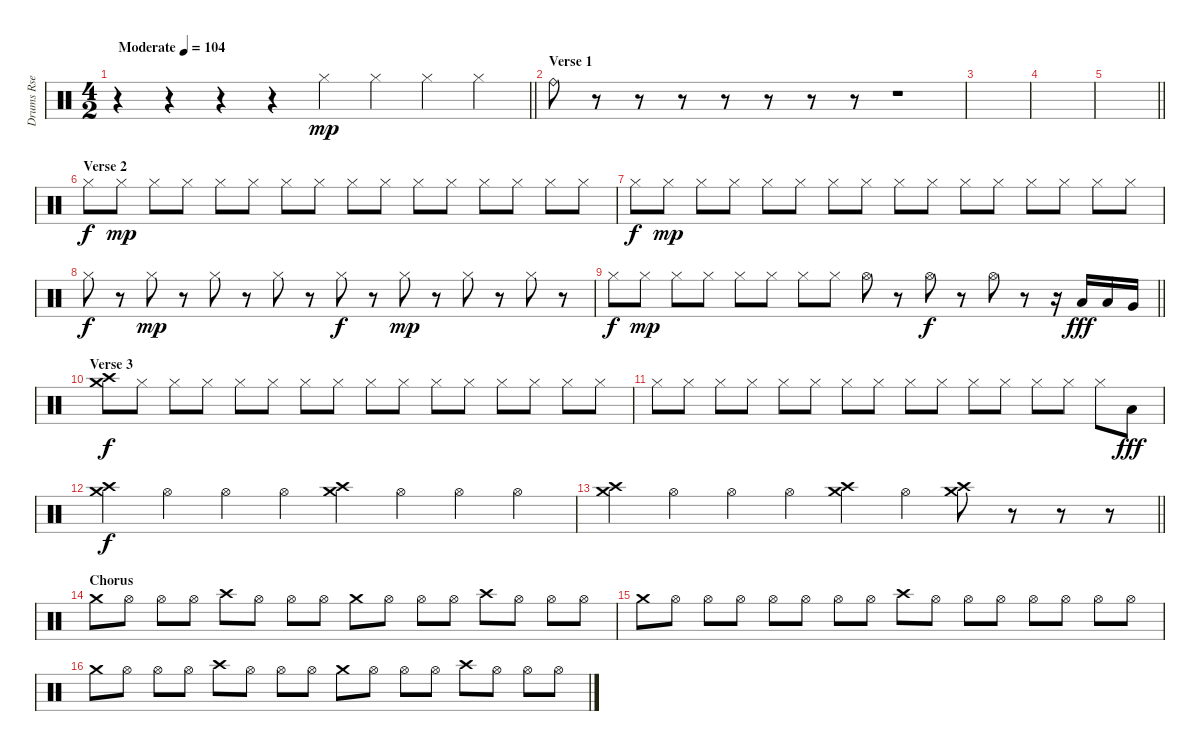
\track ("Drums Rse" "Drums Rse") {instrument percussion}
\staff {score}
\articulation defaults
\ts (4 2)
\tempo (104 "Moderate")
\clef neutral
\barLineRight lightlight
\ks c
r.4{dy mp} r.4 r.4 r.4 "Hi-Hat (closed)".4 "Hi-Hat (closed)".4 "Hi-Hat (closed)".4 "Hi-Hat (closed)".4 |
\section ("" "Verse 1")
"Ride (bell)".8 r.8 r.8 r.8 r.8 r.8 r.8 r.8 r.1 |
|
|
\barLineRight lightlight
|
\section ("" "Verse 2")
"Hi-Hat (closed)".8{dy f} "Hi-Hat (closed)".8{dy mp} "Hi-Hat (closed)".8 "Hi-Hat (closed)".8 "Hi-Hat (closed)".8 "Hi-Hat (closed)".8 "Hi-Hat (closed)".8 "Hi-Hat (closed)".8 "Hi-Hat (closed)".8 "Hi-Hat (closed)".8 "Hi-Hat (closed)".8 "Hi-Hat (closed)".8 "Hi-Hat (closed)".8 "Hi-Hat (closed)".8 "Hi-Hat (closed)".8 "Hi-Hat (closed)".8 |
"Hi-Hat (closed)".8{dy f} "Hi-Hat (closed)".8{dy mp} "Hi-Hat (closed)".8 "Hi-Hat (closed)".8 "Hi-Hat (closed)".8 "Hi-Hat (closed)".8 "Hi-Hat (closed)".8 "Hi-Hat (closed)".8 "Hi-Hat (closed)".8 "Hi-Hat (closed)".8 "Hi-Hat (closed)".8 "Hi-Hat (closed)".8 "Hi-Hat (closed)".8 "Hi-Hat (closed)".8 "Hi-Hat (closed)".8 "Hi-Hat (closed)".8 |
"Hi-Hat (closed)".8{dy f} r.8 "Hi-Hat (closed)".8{dy mp} r.8 "Hi-Hat (closed)".8 r.8 "Hi-Hat (closed)".8 r.8 "Hi-Hat (closed)".8{dy f} r.8 "Hi-Hat (closed)".8{dy mp} r.8 "Hi-Hat (closed)".8 r.8 "Hi-Hat (closed)".8 r.8 |
\barLineRight lightlight "Hi-Hat (closed)".8{dy f} "Hi-Hat (closed)".8{dy mp} "Hi-Hat (closed)".8 "Hi-Hat (closed)".8 "Hi-Hat (closed)".8 "Hi-Hat (closed)".8 "Hi-Hat (closed)".8 "Hi-Hat (closed)".8 "Hi-Hat (open)".8
r.8 "Hi-Hat (open)".8{dy f} r.8 "Hi-Hat (open)".8 r.8 r.16 "Low Tom (hit)".16{dy fff} "Low Tom (hit)".16 "Very Low Tom (hit)".16 |
\section ("" "Verse 3")
("Crash medium (hit)" "Crash high (hit)").8{dy f} "Hi-Hat (closed)".8 "Hi-Hat (closed)".8 "Hi-Hat (closed)".8 "Hi-Hat (closed)".8 "Hi-Hat (closed)".8 "Hi-Hat (closed)".8 "Hi-Hat (closed)".8 "Hi-Hat (closed)".8 "Hi-Hat (closed)".8 "Hi-Hat (closed)".8 "Hi-Hat (closed)".8 "Hi-Hat (closed)".8 "Hi-Hat (closed)".8 "Hi-Hat (closed)".8 "Hi-Hat (closed)".8 |
"Hi-Hat (closed)".8 "Hi-Hat (closed)".8 "Hi-Hat (closed)".8 "Hi-Hat (closed)".8 "Hi-Hat (closed)".8 "Hi-Hat (closed)".8 "Hi-Hat (closed)".8 "Hi-Hat (closed)".8 "Hi-Hat (closed)".8 "Hi-Hat (closed)".8 "Hi-Hat (closed)".8 "Hi-Hat (closed)".8 "Hi-Hat (closed)".8 "Hi-Hat (closed)".8 "Hi-Hat (closed)".8 "Low Tom (hit)".8{dy fff} |
("Crash medium (hit)" "Crash high (hit)").4{dy f} "Hi-Hat (open)".4 "Hi-Hat (open)".4 "Hi-Hat (open)".4 ("Crash medium (hit)" "Crash high (hit)").4 "Hi-Hat (open)".4 "Hi-Hat (open)".4 "Hi-Hat (open)".4 |
\barLineRight lightlight
("Crash medium (hit)" "Crash high (hit)").4 "Hi-Hat (open)".4 "Hi-Hat (open)".4 "Hi-Hat (open)".4 ("Crash medium (hit)" "Crash high (hit)").4 "Hi-Hat (open)".4 ("Crash medium (hit)" "Crash high (hit)").8 r.8 r.8 r.8 |
\section ("" "Chorus")
"Crash medium (hit)".8 "Hi-Hat (open)".8 "Hi-Hat (open)".8 "Hi-Hat (open)".8 "Crash high (hit)".8 "Hi-Hat (open)".8 "Hi-Hat (open)".8 "Hi-Hat (open)".8 "Crash medium (hit)".8 "Hi-Hat (open)".8 "Hi-Hat (open)".8 "Hi-Hat (open)".8 "Crash high (hit)".8 "Hi-Hat (open)".8 "Hi-Hat (open)".8 "Hi-Hat (open)".8 |
"Crash medium (hit)".8 "Hi-Hat (open)".8 "Hi-Hat (open)".8 "Hi-Hat (open)".8 "Hi-Hat (open)".8 "Hi-Hat (open)".8 "Hi-Hat (open)".8 "Hi-Hat (open)".8 "Crash high (hit)".8 "Hi-Hat (open)".8 "Hi-Hat (open)".8 "Hi-Hat (open)".8 "Hi-Hat (open)".8 "Hi-Hat (open)".8 "Hi-Hat (open)".8 "Hi-Hat (open)".8 |
"Crash medium (hit)".8 "Hi-Hat (open)".8 "Hi-Hat (open)".8 "Hi-Hat (open)".8 "Crash high (hit)".8 "Hi-Hat (open)".8 "Hi-Hat (open)".8 "Hi-Hat (open)".8 "Crash medium (hit)".8 "Hi-Hat (open)".8 "Hi-Hat (open)".8 "Hi-Hat (open)".8 "Crash high (hit)".8 "Hi-Hat (open)".8 "Hi-Hat (open)".8 "Hi-Hat (open)".8
